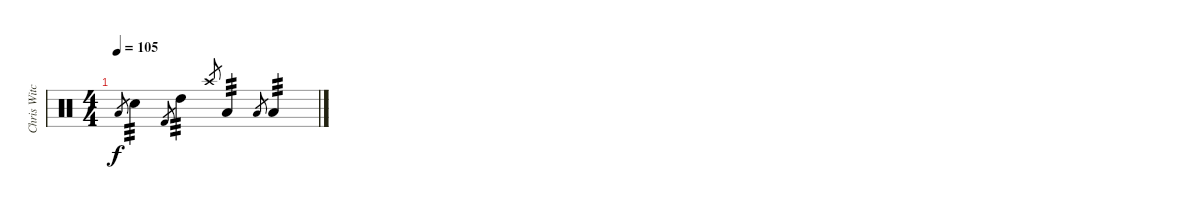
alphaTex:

\track ("Chris Witchhunter" "Chris Witc") {instrument percussion}
\staff {score}
\articulation defaults
\ts (4 4)
\tempo 105
\clef neutral
\ks c "Low Tom (hit)".8{gr dy f} "Electric Snare (hit)".4{tp 3} "Kick (hit) 2".8{gr} "High Tom (hit)".4{tp 3} "Crash high (hit)".8{gr} "Low Tom (hit)".4{tp 3} "Low Tom (hit)".8{gr} "Low Floor Tom (hit)".4{tp 3}
